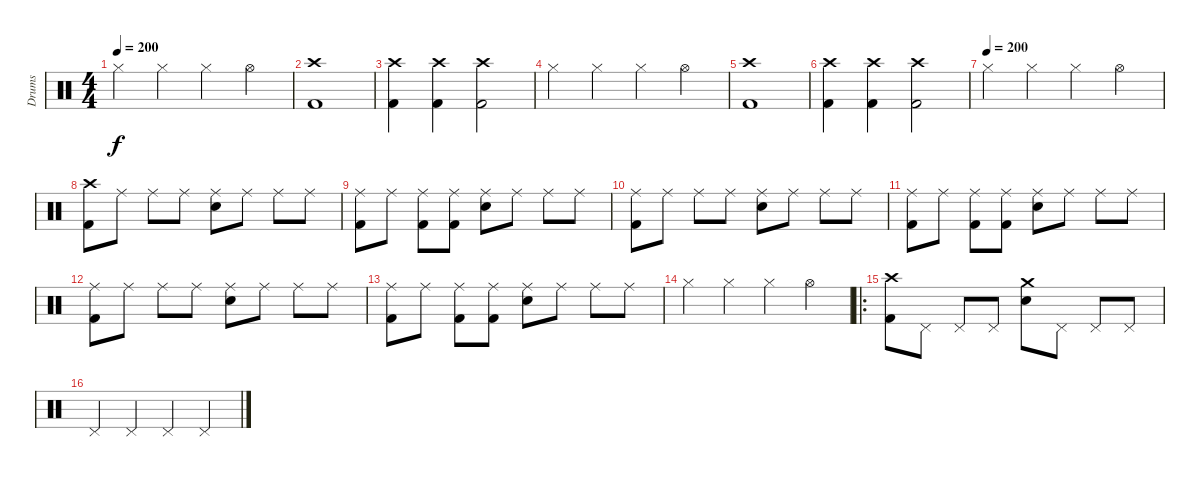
\track ("Drums" "Drums") {instrument percussion}
\staff {score}
\articulation defaults
\ts (4 4)
\tempo 200
\tempo 220
\tempo 200
\clef neutral
\ks c "Hi-Hat (closed)".4{dy f} "Hi-Hat (closed)".4 "Hi-Hat (closed)".4 "Hi-Hat (open)".4
|
("Crash high (hit)" "Kick (hit) 2").1 |
("Crash high (hit)" "Kick (hit) 2").4 ("Crash high (hit)" "Kick (hit) 2").4 ("Crash high (hit)" "Kick (hit) 2").2 |
"Hi-Hat (closed)".4 "Hi-Hat (closed)".4 "Hi-Hat (closed)".4 "Hi-Hat (open)".4 |
("Crash high (hit)" "Kick (hit) 2").1 |
("Crash high (hit)" "Kick (hit) 2").4 ("Crash high (hit)" "Kick (hit) 2").4 ("Crash high (hit)" "Kick (hit) 2").2 |
\tempo (200)
"Hi-Hat (closed)".4 "Hi-Hat (closed)".4 "Hi-Hat (closed)".4 "Hi-Hat (open)".4 |
("Crash high (hit)" "Kick (hit) 2").8 "Ride (middle)".8 "Ride (middle)".8 "Ride (middle)".8 ("Ride (middle)" "Snare (hit) 2").8 "Ride (middle)".8 "Ride (middle)".8 "Ride (middle)".8 |
("Ride (middle)" "Kick (hit) 2").8 "Ride (middle)".8 ("Ride (middle)" "Kick (hit) 2").8 ("Ride (middle)" "Kick (hit) 2").8 ("Ride (middle)" "Snare (hit) 2").8 "Ride (middle)".8 "Ride (middle)".8 "Ride (middle)".8 |
("Ride (middle)" "Kick (hit) 2").8 "Ride (middle)".8 "Ride (middle)".8 "Ride (middle)".8 ("Ride (middle)" "Snare (hit) 2").8 "Ride (middle)".8 "Ride (middle)".8 "Ride (middle)".8 |
("Ride (middle)" "Kick (hit) 2").8 "Ride (middle)".8 ("Ride (middle)" "Kick (hit) 2").8 ("Ride (middle)" "Kick (hit) 2").8 ("Ride (middle)" "Snare (hit) 2").8 "Ride (middle)".8 "Ride (middle)".8 "Ride (middle)".8 |
("Ride (middle)" "Kick (hit) 2").8 "Ride (middle)".8 "Ride (middle)".8 "Ride (middle)".8 ("Ride (middle)" "Snare (hit) 2").8 "Ride (middle)".8 "Ride (middle)".8 "Ride (middle)".8 |
("Ride (middle)" "Kick (hit) 2").8 "Ride (middle)".8 ("Ride (middle)" "Kick (hit) 2").8 ("Ride (middle)" "Kick (hit) 2").8 ("Ride (middle)" "Snare (hit) 2").8 "Ride (middle)".8 "Ride (middle)".8 "Ride (middle)".8 |
"Hi-Hat (closed)".4 "Hi-Hat (closed)".4 "Hi-Hat (closed)".4 "Hi-Hat (open)".4 |
\ro
("Crash high (hit)" "Kick (hit) 2").8 "Pedal Hi-Hat (hit)".8 "Pedal Hi-Hat (hit)".8 "Pedal Hi-Hat (hit)".8 ("Crash medium (hit)" "Snare (hit) 2").8 "Pedal Hi-Hat (hit)".8 "Pedal Hi-Hat (hit)".8 "Pedal Hi-Hat (hit)".8 |
"Pedal Hi-Hat (hit)".4 "Pedal Hi-Hat (hit)".4 "Pedal Hi-Hat (hit)".4 "Pedal Hi-Hat (hit)".4
